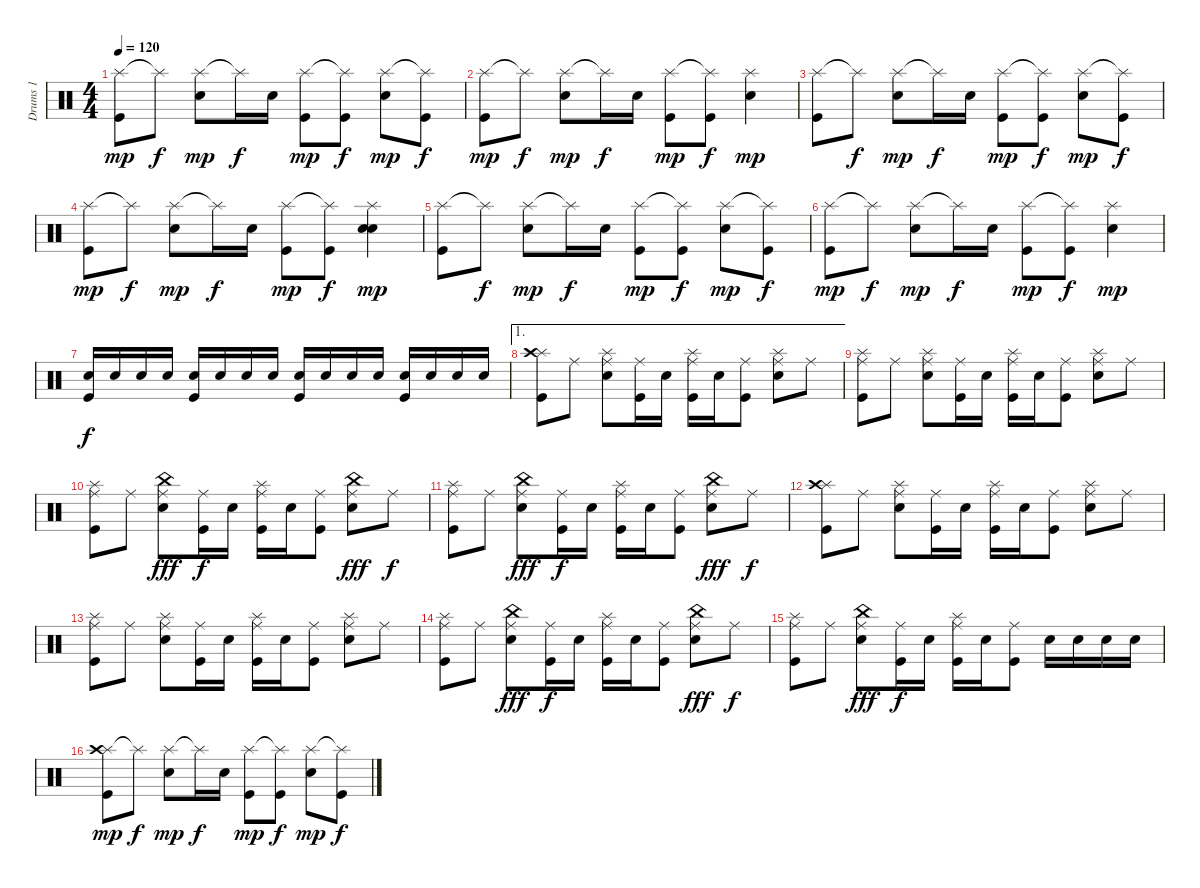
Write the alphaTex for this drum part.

\track ("Drums 1" "Drums 1") {instrument percussion}
\staff {score}
\articulation defaults
\ts (4 4)
\tempo 120
\clef neutral
\ks c
("Splash (hit)" "Kick (hit)").8{dy mp} "Splash (hit)"{t}.8{dy f} ("Splash (hit)" "Electric Snare (hit)").8{dy mp} "Splash (hit)"{t}.16{dy f} "Electric Snare (hit)".16 ("Splash (hit)" "Kick (hit)").8{dy mp} ("Splash (hit)"{t} "Kick (hit)").8{dy f} ("Splash (hit)" "Electric Snare (hit)").8{dy mp} ("Splash (hit)"{t} "Kick (hit)").8{dy f} |
("Splash (hit)" "Kick (hit)").8{dy mp} "Splash (hit)"{t}.8{dy f} ("Splash (hit)" "Electric Snare (hit)").8{dy mp} "Splash (hit)"{t}.16{dy f} "Electric Snare (hit)".16 ("Splash (hit)" "Kick (hit)").8{dy mp} ("Splash (hit)"{t} "Kick (hit)").8{dy f} ("Splash (hit)" "Electric Snare (hit)").4{dy mp} |
("Splash (hit)" "Kick (hit)").8 "Splash (hit)"{t}.8{dy f} ("Splash (hit)" "Electric Snare (hit)").8{dy mp} "Splash (hit)"{t}.16{dy f} "Electric Snare (hit)".16 ("Splash (hit)" "Kick (hit)").8{dy mp} ("Splash (hit)"{t} "Kick (hit)").8{dy f} ("Splash (hit)" "Electric Snare (hit)").8{dy mp} ("Splash (hit)"{t} "Kick (hit)").8{dy f} |
("Splash (hit)" "Kick (hit)").8{dy mp} "Splash (hit)"{t}.8{dy f} ("Splash (hit)" "Electric Snare (hit)").8{dy mp} "Splash (hit)"{t}.16{dy f} "Electric Snare (hit)".16 ("Splash (hit)" "Kick (hit)").8{dy mp} ("Splash (hit)"{t} "Kick (hit)").8{dy f} ("Splash (hit)" "Electric Snare (hit)" "Snare (hit) 2").4{dy mp} |
("Splash (hit)" "Kick (hit)").8 "Splash (hit)"{t}.8{dy f} ("Splash (hit)" "Electric Snare (hit)").8{dy mp} "Splash (hit)"{t}.16{dy f} "Electric Snare (hit)".16 ("Splash (hit)" "Kick (hit)").8{dy mp} ("Splash (hit)"{t} "Kick (hit)").8{dy f} ("Splash (hit)" "Electric Snare (hit)").8{dy mp} ("Splash (hit)"{t} "Kick (hit)").8{dy f} |
("Splash (hit)" "Kick (hit)").8{dy mp} "Splash (hit)"{t}.8{dy f} ("Splash (hit)" "Electric Snare (hit)").8{dy mp} "Splash (hit)"{t}.16{dy f} "Electric Snare (hit)".16 ("Splash (hit)" "Kick (hit)").8{dy mp} ("Splash (hit)"{t} "Kick (hit)").8{dy f} ("Splash (hit)" "Electric Snare (hit)").4{dy mp} |
("Electric Snare (hit)" "Kick (hit)").16{dy f} "Electric Snare (hit)".16 "Electric Snare (hit)".16 "Electric Snare (hit)".16 ("Electric Snare (hit)" "Kick (hit)").16 "Electric Snare (hit)".16 "Electric Snare (hit)".16 "Electric Snare (hit)".16 ("Electric Snare (hit)" "Kick (hit)").16 "Electric Snare (hit)".16 "Electric Snare (hit)".16 "Electric Snare (hit)".16 ("Electric Snare (hit)" "Kick (hit)").16 "Electric Snare (hit)".16 "Electric Snare (hit)".16 "Electric Snare (hit)".16 |
\ae 1
("Splash (hit)" "Kick (hit)" "Crash high (hit)").8 "Ride (middle)".8 ("Splash (hit)" "Electric Snare (hit)" "Ride (middle)").8 ("Kick (hit)" "Ride (middle)").16 "Electric Snare (hit)".16 ("Splash (hit)" "Kick (hit)" "Ride (middle)").16 "Electric Snare (hit)".16 ("Kick (hit)" "Ride (middle)").8 ("Splash (hit)" "Electric Snare (hit)" "Ride (middle)").8 "Ride (middle)".8 |
("Splash (hit)" "Kick (hit)" "Ride (middle)").8 "Ride (middle)".8 ("Splash (hit)" "Electric Snare (hit)" "Ride (middle)").8 ("Kick (hit)" "Ride (middle)").16 "Electric Snare (hit)".16 ("Splash (hit)" "Kick (hit)" "Ride (middle)").16 "Electric Snare (hit)".16 ("Kick (hit)" "Ride (middle)").8 ("Splash (hit)" "Electric Snare (hit)" "Ride (middle)").8 "Ride (middle)".8 |
("Splash (hit)" "Kick (hit)" "Ride (middle)").8 "Ride (middle)".8 ("China (hit)" "Electric Snare (hit)" "Ride (middle)").8{dy fff} ("Kick (hit)" "Ride (middle)").16{dy f} "Electric Snare (hit)".16 ("Splash (hit)" "Kick (hit)" "Ride (middle)").16 "Electric Snare (hit)".16 ("Kick (hit)" "Ride (middle)").8 ("China (hit)" "Electric Snare (hit)" "Ride (middle)").8{dy fff} "Ride (middle)".8{dy f} |
("Splash (hit)" "Kick (hit)" "Ride (middle)").8 "Ride (middle)".8 ("China (hit)" "Electric Snare (hit)" "Ride (middle)").8{dy fff} ("Kick (hit)" "Ride (middle)").16{dy f} "Electric Snare (hit)".16 ("Splash (hit)" "Kick (hit)" "Ride (middle)").16 "Electric Snare (hit)".16 ("Kick (hit)" "Ride (middle)").8 ("China (hit)" "Electric Snare (hit)" "Ride (middle)").8{dy fff} "Ride (middle)".8{dy f} |
("Splash (hit)" "Kick (hit)" "Crash high (hit)").8 "Ride (middle)".8 ("Splash (hit)" "Electric Snare (hit)" "Ride (middle)").8 ("Kick (hit)" "Ride (middle)").16 "Electric Snare (hit)".16 ("Splash (hit)" "Kick (hit)" "Ride (middle)").16 "Electric Snare (hit)".16 ("Kick (hit)" "Ride (middle)").8 ("Splash (hit)" "Electric Snare (hit)" "Ride (middle)").8 "Ride (middle)".8 |
("Splash (hit)" "Kick (hit)" "Ride (middle)").8 "Ride (middle)".8 ("Splash (hit)" "Electric Snare (hit)" "Ride (middle)").8 ("Kick (hit)" "Ride (middle)").16 "Electric Snare (hit)".16 ("Splash (hit)" "Kick (hit)" "Ride (middle)").16 "Electric Snare (hit)".16 ("Kick (hit)" "Ride (middle)").8 ("Splash (hit)" "Electric Snare (hit)" "Ride (middle)").8 "Ride (middle)".8 |
("Splash (hit)" "Kick (hit)" "Ride (middle)").8 "Ride (middle)".8 ("China (hit)" "Electric Snare (hit)" "Ride (middle)").8{dy fff} ("Kick (hit)" "Ride (middle)").16{dy f} "Electric Snare (hit)".16 ("Splash (hit)" "Kick (hit)" "Ride (middle)").16 "Electric Snare (hit)".16 ("Kick (hit)" "Ride (middle)").8 ("China (hit)" "Electric Snare (hit)" "Ride (middle)").8{dy fff} "Ride (middle)".8{dy f} |
("Splash (hit)" "Kick (hit)" "Ride (middle)").8 "Ride (middle)".8 ("China (hit)" "Electric Snare (hit)" "Ride (middle)").8{dy fff} ("Kick (hit)" "Ride (middle)").16{dy f} "Electric Snare (hit)".16 ("Splash (hit)" "Kick (hit)" "Ride (middle)").16 "Electric Snare (hit)".16 ("Kick (hit)" "Ride (middle)").8 "Electric Snare (hit)".16 "Electric Snare (hit)".16 "Electric Snare (hit)".16 "Electric Snare (hit)".16 |
("Splash (hit)" "Kick (hit)" "Crash high (hit)").8{dy mp} "Splash (hit)"{t}.8{dy f} ("Splash (hit)" "Electric Snare (hit)").8{dy mp} "Splash (hit)"{t}.16{dy f} "Electric Snare (hit)".16 ("Splash (hit)" "Kick (hit)").8{dy mp} ("Splash (hit)"{t} "Kick (hit)").8{dy f} ("Splash (hit)" "Electric Snare (hit)").8{dy mp} ("Splash (hit)"{t} "Kick (hit)").8{dy f}
